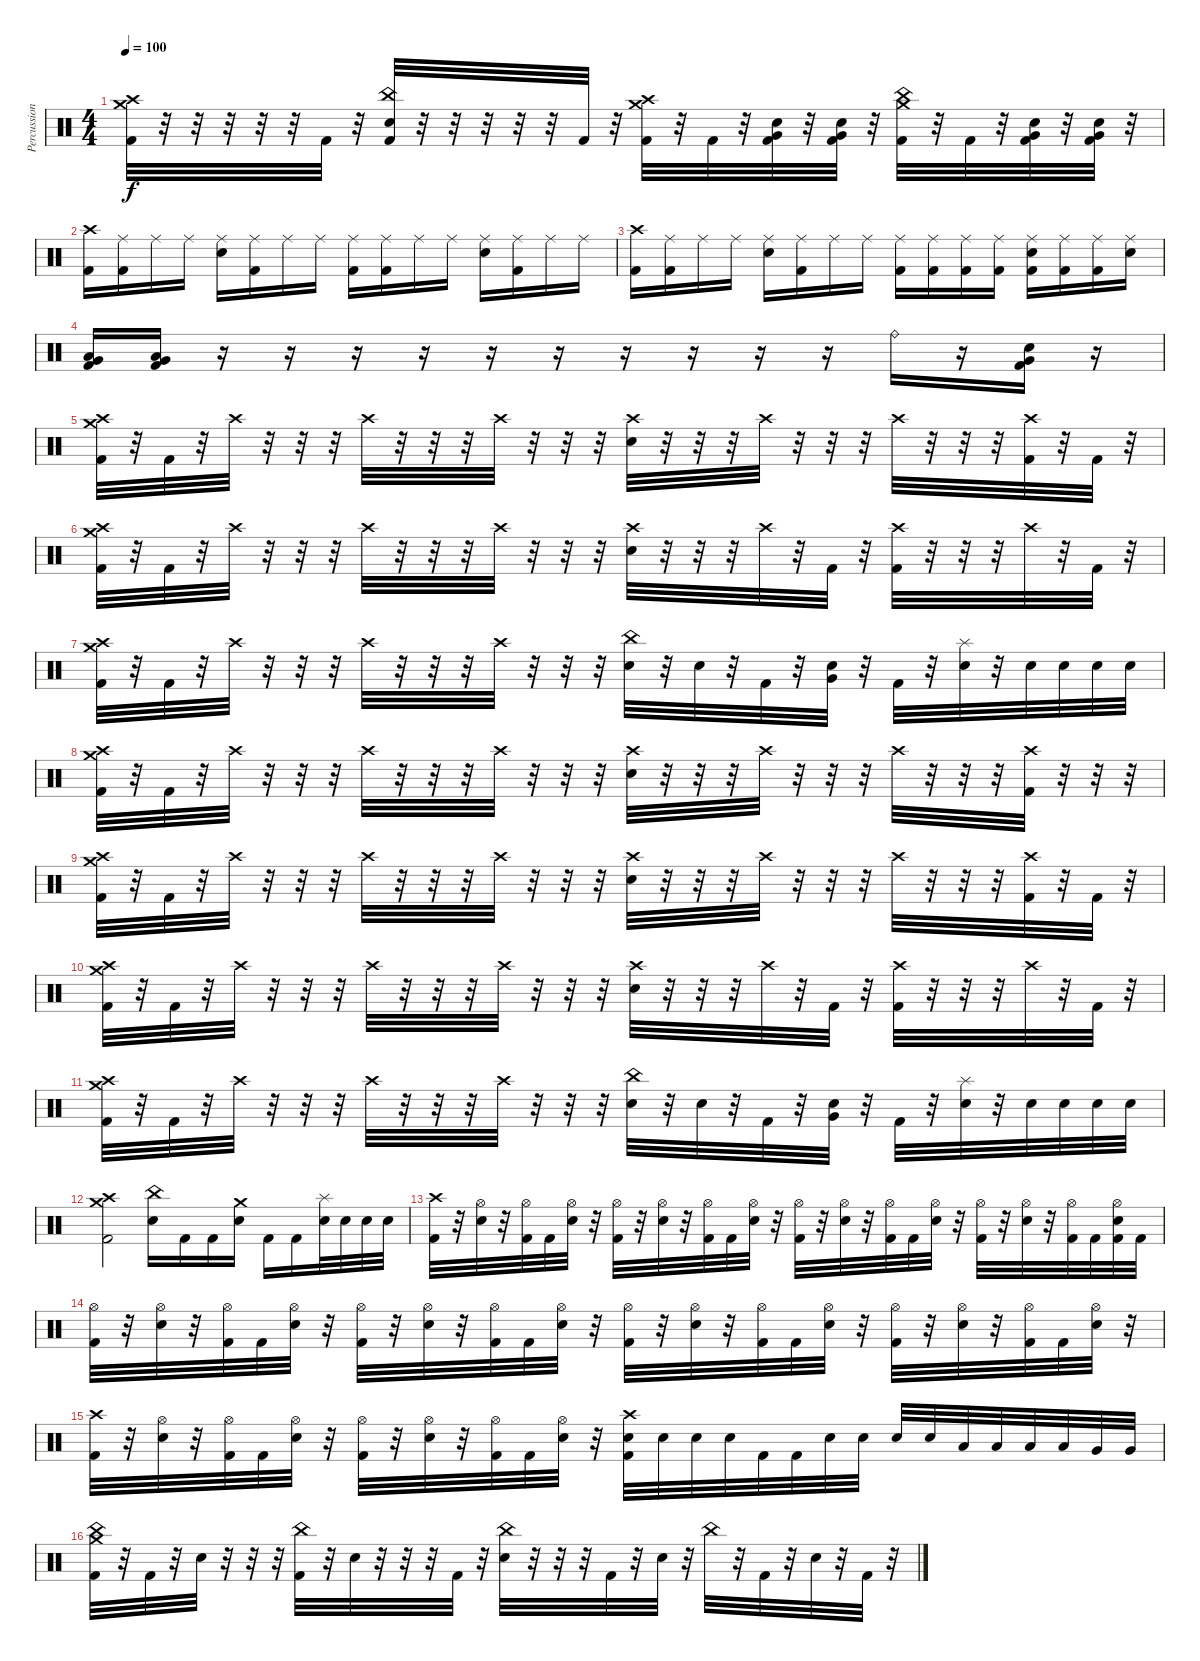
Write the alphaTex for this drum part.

\track ("Percussion" "Percussion") {instrument percussion}
\staff {score}
\articulation defaults
\ts (4 4)
\tempo 100
\clef neutral
\ks c
("Crash medium (hit)" "Crash high (hit)" "Kick (hit) 2").32{dy f} r.32 r.32 r.32 r.32 r.32 "Kick (hit) 2".32 r.32 ("China (hit)" "Electric Snare (hit)" "Kick (hit) 2").32 r.32 r.32 r.32 r.32 r.32 "Kick (hit) 2".32 r.32 ("Crash high (hit)" "Crash medium (hit)" "Kick (hit) 2").32 r.32 "Kick (hit) 2".32 r.32 ("Very Low Tom (hit)" "Electric Snare (hit)" "Kick (hit) 2").32 r.32 ("Very Low Tom (hit)" "Electric Snare (hit)" "Kick (hit) 2").32 r.32 ("China (hit)" "Crash medium (hit)" "Kick (hit) 2").32 r.32 "Kick (hit) 2".32 r.32 ("Very Low Tom (hit)" "Electric Snare (hit)" "Kick (hit) 2").32 r.32 ("Very Low Tom (hit)" "Electric Snare (hit)" "Kick (hit) 2").32 r.32 |
("Crash high (hit)" "Kick (hit) 2").16 ("Ride (middle)" "Kick (hit) 2").16 "Ride (middle)".16 "Ride (middle)".16 ("Ride (middle)" "Electric Snare (hit)").16 ("Ride (middle)" "Kick (hit) 2").16 "Ride (middle)".16 "Ride (middle)".16 ("Ride (middle)" "Kick (hit) 2").16 ("Ride (middle)" "Kick (hit) 2").16 "Ride (middle)".16 "Ride (middle)".16 ("Ride (middle)" "Electric Snare (hit)").16 ("Ride (middle)" "Kick (hit) 2").16 "Ride (middle)".16 "Ride (middle)".16 |
("Crash high (hit)" "Kick (hit) 2").16 ("Ride (middle)" "Kick (hit) 2").16 "Ride (middle)".16 "Ride (middle)".16 ("Ride (middle)" "Electric Snare (hit)").16 ("Ride (middle)" "Kick (hit) 2").16 "Ride (middle)".16 "Ride (middle)".16 ("Ride (middle)" "Kick (hit) 2").16 ("Ride (middle)" "Kick (hit) 2").16 ("Ride (middle)" "Kick (hit) 2").16 ("Ride (middle)" "Kick (hit) 2").16 ("Ride (middle)" "Electric Snare (hit)" "Kick (hit) 2").16 ("Ride (middle)" "Kick (hit) 2").16 ("Ride (middle)" "Kick (hit) 2").16 ("Ride (middle)" "Electric Snare (hit)").16 |
("Low Tom (hit)" "Very Low Tom (hit)" "Kick (hit) 2").16 ("Low Tom (hit)" "Very Low Tom (hit)" "Kick (hit) 2").16 r.16 r.16 r.16 r.16 r.16 r.16 r.16 r.16 r.16 r.16 "Ride (bell)".16 r.16 ("Very Low Tom (hit)" "Electric Snare (hit)" "Kick (hit) 2").16 r.16 |
("Crash high (hit)" "Crash medium (hit)" "Kick (hit) 2").32 r.32 "Kick (hit) 2".32 r.32 "Crash high (hit)".32 r.32 r.32 r.32 "Crash high (hit)".32 r.32 r.32 r.32 "Crash high (hit)".32 r.32 r.32 r.32 ("Crash high (hit)" "Electric Snare (hit)").32 r.32 r.32 r.32 "Crash high (hit)".32 r.32 r.32 r.32 "Crash high (hit)".32 r.32 r.32 r.32 ("Crash high (hit)" "Kick (hit) 2").32 r.32 "Kick (hit) 2".32 r.32 |
("Crash high (hit)" "Crash medium (hit)" "Kick (hit) 2").32 r.32 "Kick (hit) 2".32 r.32 "Crash high (hit)".32 r.32 r.32 r.32 "Crash high (hit)".32 r.32 r.32 r.32 "Crash high (hit)".32 r.32 r.32 r.32 ("Crash high (hit)" "Electric Snare (hit)").32 r.32 r.32 r.32 "Crash high (hit)".32 r.32 "Kick (hit) 2".32 r.32 ("Crash high (hit)" "Kick (hit) 2").32 r.32 r.32 r.32 "Crash high (hit)".32 r.32 "Kick (hit) 2".32 r.32 |
("Crash high (hit)" "Crash medium (hit)" "Kick (hit) 2").32 r.32 "Kick (hit) 2".32 r.32 "Crash high (hit)".32 r.32 r.32 r.32 "Crash high (hit)".32 r.32 r.32 r.32 "Crash high (hit)".32 r.32 r.32 r.32 ("China (hit)" "Electric Snare (hit)").32 r.32 "Electric Snare (hit)".32 r.32 "Kick (hit) 2".32 r.32 ("Very Low Tom (hit)" "Electric Snare (hit)").32 r.32 "Kick (hit) 2".32 r.32 ("Splash (hit)" "Electric Snare (hit)").32 r.32 "Electric Snare (hit)".32 "Electric Snare (hit)".32 "Electric Snare (hit)".32 "Electric Snare (hit)".32 |
("Crash high (hit)" "Crash medium (hit)" "Kick (hit) 2").32 r.32 "Kick (hit) 2".32 r.32 "Crash high (hit)".32 r.32 r.32 r.32 "Crash high (hit)".32 r.32 r.32 r.32 "Crash high (hit)".32 r.32 r.32 r.32 ("Crash high (hit)" "Electric Snare (hit)").32 r.32 r.32 r.32 "Crash high (hit)".32 r.32 r.32 r.32 "Crash high (hit)".32 r.32 r.32 r.32 ("Crash high (hit)" "Kick (hit) 2").32 r.32 r.32 r.32 |
("Crash high (hit)" "Crash medium (hit)" "Kick (hit) 2").32 r.32 "Kick (hit) 2".32 r.32 "Crash high (hit)".32 r.32 r.32 r.32 "Crash high (hit)".32 r.32 r.32 r.32 "Crash high (hit)".32 r.32 r.32 r.32 ("Crash high (hit)" "Electric Snare (hit)").32 r.32 r.32 r.32 "Crash high (hit)".32 r.32 r.32 r.32 "Crash high (hit)".32 r.32 r.32 r.32 ("Crash high (hit)" "Kick (hit) 2").32 r.32 "Kick (hit) 2".32 r.32 |
("Crash high (hit)" "Crash medium (hit)" "Kick (hit) 2").32 r.32 "Kick (hit) 2".32 r.32 "Crash high (hit)".32 r.32 r.32 r.32 "Crash high (hit)".32 r.32 r.32 r.32 "Crash high (hit)".32 r.32 r.32 r.32 ("Crash high (hit)" "Electric Snare (hit)").32 r.32 r.32 r.32 "Crash high (hit)".32 r.32 "Kick (hit) 2".32 r.32 ("Crash high (hit)" "Kick (hit) 2").32 r.32 r.32 r.32 "Crash high (hit)".32 r.32 "Kick (hit) 2".32 r.32 |
("Crash high (hit)" "Crash medium (hit)" "Kick (hit) 2").32 r.32 "Kick (hit) 2".32 r.32 "Crash high (hit)".32 r.32 r.32 r.32 "Crash high (hit)".32 r.32 r.32 r.32 "Crash high (hit)".32 r.32 r.32 r.32 ("China (hit)" "Electric Snare (hit)").32 r.32 "Electric Snare (hit)".32 r.32 "Kick (hit) 2".32 r.32 ("Very Low Tom (hit)" "Electric Snare (hit)").32 r.32 "Kick (hit) 2".32 r.32 ("Splash (hit)" "Electric Snare (hit)").32 r.32 "Electric Snare (hit)".32 "Electric Snare (hit)".32 "Electric Snare (hit)".32 "Electric Snare (hit)".32 |
("Crash high (hit)" "Crash medium (hit)" "Kick (hit) 2").2 ("China (hit)" "Electric Snare (hit)").16 "Kick (hit) 2".16 "Kick (hit) 2".16 ("Crash medium (hit)" "Electric Snare (hit)").16 "Kick (hit) 2".16 "Kick (hit) 2".16 ("Splash (hit)" "Electric Snare (hit)").32 "Electric Snare (hit)".32 "Electric Snare (hit)".32 "Electric Snare (hit)".32 |
("Crash high (hit)" "Kick (hit) 2").32 r.32 ("Hi-Hat (open)" "Electric Snare (hit)").32 r.32 ("Hi-Hat (open)" "Kick (hit) 2").32 "Kick (hit) 2".32 ("Hi-Hat (open)" "Electric Snare (hit)").32 r.32 ("Hi-Hat (open)" "Kick (hit) 2").32 r.32 ("Hi-Hat (open)" "Electric Snare (hit)").32 r.32 ("Hi-Hat (open)" "Kick (hit) 2").32 "Kick (hit) 2".32 ("Hi-Hat (open)" "Electric Snare (hit)").32 r.32 ("Hi-Hat (open)" "Kick (hit) 2").32 r.32 ("Hi-Hat (open)" "Electric Snare (hit)").32 r.32 ("Hi-Hat (open)" "Kick (hit) 2").32 "Kick (hit) 2".32 ("Hi-Hat (open)" "Electric Snare (hit)").32 r.32 ("Hi-Hat (open)" "Kick (hit) 2").32 r.32 ("Hi-Hat (open)" "Electric Snare (hit)").32 r.32 ("Hi-Hat (open)" "Kick (hit) 2").32 "Kick (hit) 2".32 ("Hi-Hat (open)" "Electric Snare (hit)" "Kick (hit) 2").32 "Kick (hit) 2".32 |
("Hi-Hat (open)" "Kick (hit) 2").32 r.32 ("Hi-Hat (open)" "Electric Snare (hit)").32 r.32 ("Hi-Hat (open)" "Kick (hit) 2").32 "Kick (hit) 2".32 ("Hi-Hat (open)" "Electric Snare (hit)").32 r.32 ("Hi-Hat (open)" "Kick (hit) 2").32 r.32 ("Hi-Hat (open)" "Electric Snare (hit)").32 r.32 ("Hi-Hat (open)" "Kick (hit) 2").32 "Kick (hit) 2".32 ("Hi-Hat (open)" "Electric Snare (hit)").32 r.32 ("Hi-Hat (open)" "Kick (hit) 2").32 r.32 ("Hi-Hat (open)" "Electric Snare (hit)").32 r.32 ("Hi-Hat (open)" "Kick (hit) 2").32 "Kick (hit) 2".32 ("Hi-Hat (open)" "Electric Snare (hit)").32 r.32 ("Hi-Hat (open)" "Kick (hit) 2").32 r.32 ("Hi-Hat (open)" "Electric Snare (hit)").32 r.32 ("Hi-Hat (open)" "Kick (hit) 2").32 "Kick (hit) 2".32 ("Hi-Hat (open)" "Electric Snare (hit)").32 r.32 |
("Crash high (hit)" "Kick (hit) 2").32 r.32 ("Hi-Hat (open)" "Electric Snare (hit)").32 r.32 ("Hi-Hat (open)" "Kick (hit) 2").32 "Kick (hit) 2".32 ("Hi-Hat (open)" "Electric Snare (hit)").32 r.32 ("Hi-Hat (open)" "Kick (hit) 2").32 r.32 ("Hi-Hat (open)" "Electric Snare (hit)").32 r.32 ("Hi-Hat (open)" "Kick (hit) 2").32 "Kick (hit) 2".32 ("Hi-Hat (open)" "Electric Snare (hit)").32 r.32 ("Crash high (hit)" "Electric Snare (hit)" "Kick (hit) 2").32 "Electric Snare (hit)".32 "Electric Snare (hit)".32 "Electric Snare (hit)".32 "Kick (hit) 2".32 "Kick (hit) 2".32 "Electric Snare (hit)".32 "Electric Snare (hit)".32 "Electric Snare (hit)".32 "Electric Snare (hit)".32 "Low Tom (hit)".32 "Low Tom (hit)".32 "Low Tom (hit)".32 "Low Tom (hit)".32 "Very Low Tom (hit)".32 "Very Low Tom (hit)".32 |
("Crash medium (hit)" "China (hit)" "Kick (hit) 2").32 r.32 "Kick (hit) 2".32 r.32 "Electric Snare (hit)".32 r.32 r.32 r.32 ("China (hit)" "Kick (hit) 2").32 r.32 "Electric Snare (hit)".32 r.32 r.32 r.32 "Kick (hit) 2".32 r.32 ("China (hit)" "Electric Snare (hit)").32 r.32 r.32 r.32 "Kick (hit) 2".32 r.32 "Electric Snare (hit)".32 r.32 "China (hit)".32 r.32 "Kick (hit) 2".32 r.32 "Electric Snare (hit)".32 r.32 "Kick (hit) 2".32 r.32
